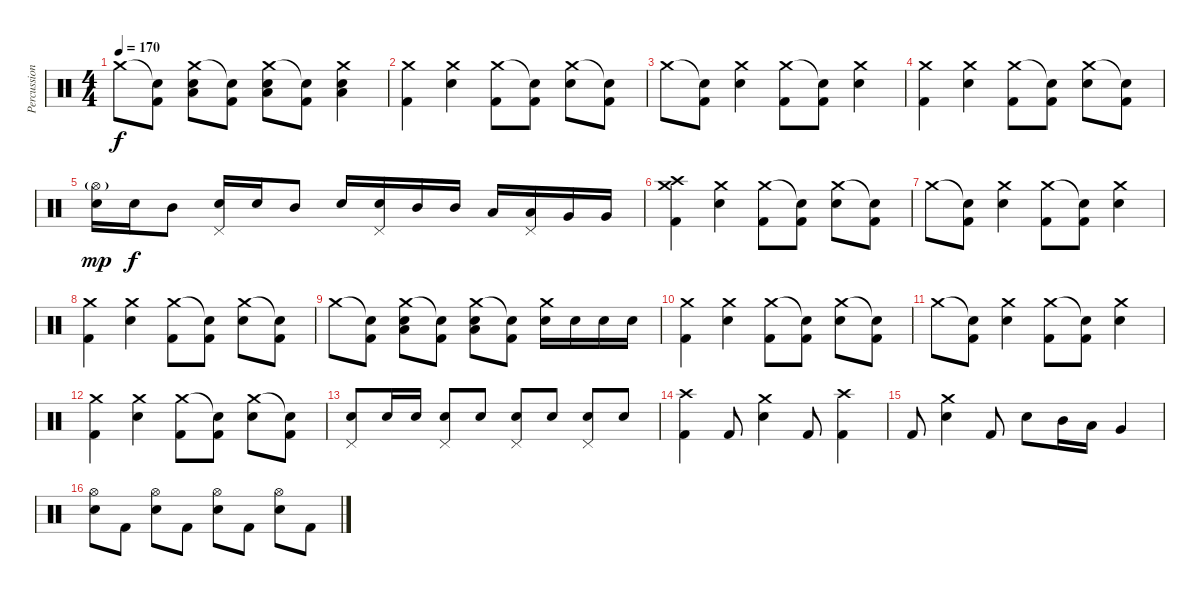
\track ("Percussion" "Percussion") {instrument percussion}
\staff {score}
\articulation defaults
\ts (4 4)
\tempo 170
\clef neutral
\ks c "Crash medium (hit)".8{dy f}
("Snare (hit)"{t} "Kick (hit) 2").8 ("Crash medium (hit)" "Low Floor Tom (hit)" "Electric Snare (hit)").8 ("Snare (hit)"{t} "Kick (hit) 2").8 ("Crash medium (hit)" "Low Floor Tom (hit)" "Electric Snare (hit)").8 ("Snare (hit)"{t} "Kick (hit) 2").8 ("Crash medium (hit)" "Low Floor Tom (hit)" "Electric Snare (hit)").4 |
("Crash medium (hit)" "Kick (hit) 2").4 ("Crash medium (hit)" "Electric Snare (hit)").4 ("Crash medium (hit)" "Kick (hit) 2").8 ("Snare (hit)"{t} "Kick (hit) 2").8 ("Crash medium (hit)" "Electric Snare (hit)").8 ("Snare (hit)"{t} "Kick (hit) 2").8 |
"Crash medium (hit)".8 ("Snare (hit)"{t} "Kick (hit) 2").8 ("Crash medium (hit)" "Electric Snare (hit)").4 ("Crash medium (hit)" "Kick (hit) 2").8 ("Snare (hit)"{t} "Kick (hit) 2").8 ("Crash medium (hit)" "Electric Snare (hit)").4 |
("Crash medium (hit)" "Kick (hit) 2").4 ("Crash medium (hit)" "Electric Snare (hit)").4 ("Crash medium (hit)" "Kick (hit) 2").8 ("Snare (hit)"{t} "Kick (hit) 2").8 ("Crash medium (hit)" "Electric Snare (hit)").8 ("Snare (hit)"{t} "Kick (hit) 2").8 |
("Hi-Hat (open)"{g} "Electric Snare (hit)").16{dy mp} "Electric Snare (hit)".16{dy f} "Mid Tom (hit)".8 ("Pedal Hi-Hat (hit)" "Electric Snare (hit)").16 "Electric Snare (hit)".16 "Mid Tom (hit)".8 "Electric Snare (hit)".16 ("Pedal Hi-Hat (hit)" "Electric Snare (hit)").16 "Mid Tom (hit)".16 "Mid Tom (hit)".16 "Low Tom (hit)".16 ("Pedal Hi-Hat (hit)" "Low Tom (hit)").16 "Very Low Tom (hit)".16 "Very Low Tom (hit)".16 |
("Crash medium (hit)" "Crash high (hit)" "Kick (hit) 2").4 ("Crash medium (hit)" "Electric Snare (hit)").4 ("Crash medium (hit)" "Kick (hit) 2").8 ("Snare (hit)"{t} "Kick (hit) 2").8 ("Crash medium (hit)" "Electric Snare (hit)").8 ("Snare (hit)"{t} "Kick (hit) 2").8 |
"Crash medium (hit)".8 ("Snare (hit)"{t} "Kick (hit) 2").8 ("Crash medium (hit)" "Electric Snare (hit)").4 ("Crash medium (hit)" "Kick (hit) 2").8 ("Snare (hit)"{t} "Kick (hit) 2").8 ("Crash medium (hit)" "Electric Snare (hit)").4 |
("Crash medium (hit)" "Kick (hit) 2").4 ("Crash medium (hit)" "Electric Snare (hit)").4 ("Crash medium (hit)" "Kick (hit) 2").8 ("Snare (hit)"{t} "Kick (hit) 2").8 ("Crash medium (hit)" "Electric Snare (hit)").8 ("Snare (hit)"{t} "Kick (hit) 2").8 |
"Crash medium (hit)".8 ("Snare (hit)"{t} "Kick (hit) 2").8 ("Crash medium (hit)" "Low Floor Tom (hit)" "Electric Snare (hit)").8 ("Snare (hit)"{t} "Kick (hit) 2").8 ("Crash medium (hit)" "Low Floor Tom (hit)" "Electric Snare (hit)").8 ("Snare (hit)"{t} "Kick (hit) 2").8 ("Crash medium (hit)" "Electric Snare (hit)").16 "Electric Snare (hit)".16 "Electric Snare (hit)".16 "Electric Snare (hit)".16 |
("Crash medium (hit)" "Kick (hit) 2").4 ("Crash medium (hit)" "Electric Snare (hit)").4 ("Crash medium (hit)" "Kick (hit) 2").8 ("Snare (hit)"{t} "Kick (hit) 2").8 ("Crash medium (hit)" "Electric Snare (hit)").8 ("Snare (hit)"{t} "Kick (hit) 2").8 |
"Crash medium (hit)".8 ("Snare (hit)"{t} "Kick (hit) 2").8 ("Crash medium (hit)" "Electric Snare (hit)").4 ("Crash medium (hit)" "Kick (hit) 2").8 ("Snare (hit)"{t} "Kick (hit) 2").8 ("Crash medium (hit)" "Electric Snare (hit)").4 |
("Crash medium (hit)" "Kick (hit) 2").4 ("Crash medium (hit)" "Electric Snare (hit)").4 ("Crash medium (hit)" "Kick (hit) 2").8 ("Snare (hit)"{t} "Kick (hit) 2").8 ("Crash medium (hit)" "Electric Snare (hit)").8 ("Snare (hit)"{t} "Kick (hit) 2").8 |
("Pedal Hi-Hat (hit)" "Electric Snare (hit)").8 "Electric Snare (hit)".16 "Electric Snare (hit)".16 ("Pedal Hi-Hat (hit)" "Electric Snare (hit)").8 "Electric Snare (hit)".8 ("Pedal Hi-Hat (hit)" "Electric Snare (hit)").8 "Electric Snare (hit)".8 ("Pedal Hi-Hat (hit)" "Electric Snare (hit)").8 "Electric Snare (hit)".8 |
("Crash high (hit)" "Kick (hit) 2").4 "Kick (hit) 2".8 ("Crash medium (hit)" "Electric Snare (hit)").4 "Kick (hit) 2".8 ("Crash high (hit)" "Kick (hit) 2").4 |
"Kick (hit) 2".8 ("Crash medium (hit)" "Electric Snare (hit)").4 "Kick (hit) 2".8 "Electric Snare (hit)".8 "Mid Tom (hit)".16 "Low Tom (hit)".16 "Very Low Tom (hit)".4 |
("Hi-Hat (open)" "Electric Snare (hit)").8 "Kick (hit) 2".8 ("Hi-Hat (open)" "Electric Snare (hit)").8 "Kick (hit) 2".8 ("Hi-Hat (open)" "Electric Snare (hit)").8 "Kick (hit) 2".8 ("Hi-Hat (open)" "Electric Snare (hit)").8 "Kick (hit) 2".8
